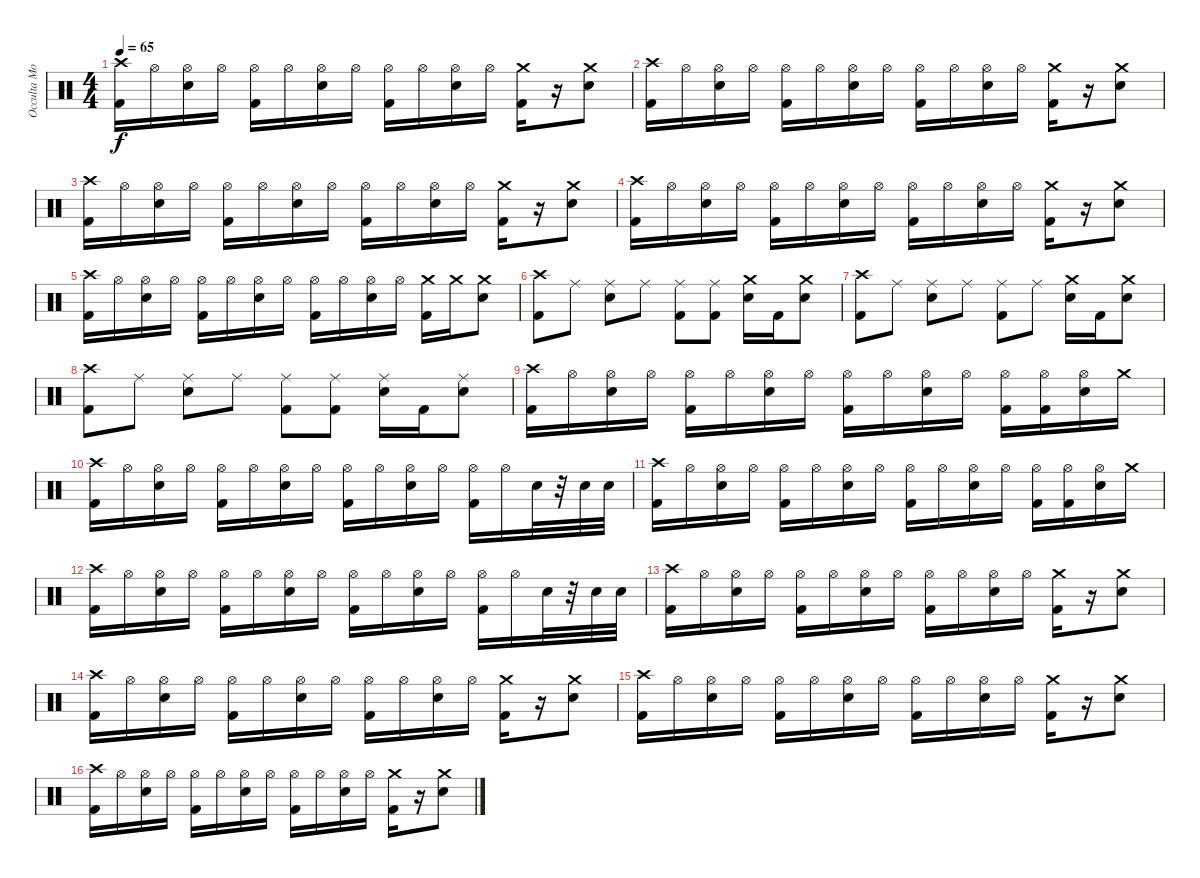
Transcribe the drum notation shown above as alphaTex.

\track ("Occulta Mors" "Occulta Mo") {instrument percussion}
\staff {score}
\articulation defaults
\ts (4 4)
\tempo 65
\clef neutral
\ks c
("Crash high (hit)" "Kick (hit) 2").16{dy f} "Hi-Hat (open)".16 ("Hi-Hat (open)" "Snare (hit) 2").16 "Hi-Hat (open)".16 ("Hi-Hat (open)" "Kick (hit) 2").16 "Hi-Hat (open)".16 ("Hi-Hat (open)" "Snare (hit) 2").16 "Hi-Hat (open)".16 ("Hi-Hat (open)" "Kick (hit) 2").16 "Hi-Hat (open)".16 ("Hi-Hat (open)" "Snare (hit) 2").16 "Hi-Hat (open)".16 ("Crash medium (hit)" "Kick (hit) 2").16 r.16 ("Crash medium (hit)" "Snare (hit) 2").8 |
("Crash high (hit)" "Kick (hit) 2").16 "Hi-Hat (open)".16 ("Hi-Hat (open)" "Snare (hit) 2").16 "Hi-Hat (open)".16 ("Hi-Hat (open)" "Kick (hit) 2").16 "Hi-Hat (open)".16 ("Hi-Hat (open)" "Snare (hit) 2").16 "Hi-Hat (open)".16 ("Hi-Hat (open)" "Kick (hit) 2").16 "Hi-Hat (open)".16 ("Hi-Hat (open)" "Snare (hit) 2").16 "Hi-Hat (open)".16 ("Crash medium (hit)" "Kick (hit) 2").16 r.16 ("Crash medium (hit)" "Snare (hit) 2").8 |
("Crash high (hit)" "Kick (hit) 2").16 "Hi-Hat (open)".16 ("Hi-Hat (open)" "Snare (hit) 2").16 "Hi-Hat (open)".16 ("Hi-Hat (open)" "Kick (hit) 2").16 "Hi-Hat (open)".16 ("Hi-Hat (open)" "Snare (hit) 2").16 "Hi-Hat (open)".16 ("Hi-Hat (open)" "Kick (hit) 2").16 "Hi-Hat (open)".16 ("Hi-Hat (open)" "Snare (hit) 2").16 "Hi-Hat (open)".16 ("Crash medium (hit)" "Kick (hit) 2").16 r.16 ("Crash medium (hit)" "Snare (hit) 2").8 |
("Crash high (hit)" "Kick (hit) 2").16 "Hi-Hat (open)".16 ("Hi-Hat (open)" "Snare (hit) 2").16 "Hi-Hat (open)".16 ("Hi-Hat (open)" "Kick (hit) 2").16 "Hi-Hat (open)".16 ("Hi-Hat (open)" "Snare (hit) 2").16 "Hi-Hat (open)".16 ("Hi-Hat (open)" "Kick (hit) 2").16 "Hi-Hat (open)".16 ("Hi-Hat (open)" "Snare (hit) 2").16 "Hi-Hat (open)".16 ("Crash medium (hit)" "Kick (hit) 2").16 r.16 ("Crash medium (hit)" "Snare (hit) 2").8 |
("Crash high (hit)" "Kick (hit) 2").16 "Hi-Hat (open)".16 ("Hi-Hat (open)" "Snare (hit) 2").16 "Hi-Hat (open)".16 ("Hi-Hat (open)" "Kick (hit) 2").16 "Hi-Hat (open)".16 ("Hi-Hat (open)" "Snare (hit) 2").16 "Hi-Hat (open)".16 ("Hi-Hat (open)" "Kick (hit) 2").16 "Hi-Hat (open)".16 ("Hi-Hat (open)" "Snare (hit) 2").16 "Hi-Hat (open)".16 ("Crash medium (hit)" "Kick (hit) 2").16 "Crash medium (hit)".16 ("Crash medium (hit)" "Snare (hit) 2").8 |
("Crash high (hit)" "Kick (hit) 2").8 "Ride (middle)".8 ("Ride (middle)" "Snare (hit) 2").8 "Ride (middle)".8 ("Ride (middle)" "Kick (hit) 2").8 ("Ride (middle)" "Kick (hit) 2").8 ("Crash medium (hit)" "Snare (hit) 2").16 "Kick (hit) 2".16 ("Crash medium (hit)" "Snare (hit) 2").8 |
("Crash high (hit)" "Kick (hit) 2").8 "Ride (middle)".8 ("Ride (middle)" "Snare (hit) 2").8 "Ride (middle)".8 ("Ride (middle)" "Kick (hit) 2").8 "Ride (middle)".8 ("Crash medium (hit)" "Snare (hit) 2").16 "Kick (hit) 2".16 ("Crash medium (hit)" "Snare (hit) 2").8 |
("Crash high (hit)" "Kick (hit) 2").8 "Ride (middle)".8 ("Ride (middle)" "Snare (hit) 2").8 "Ride (middle)".8 ("Ride (middle)" "Kick (hit) 2").8 ("Ride (middle)" "Kick (hit) 2").8 ("Ride (middle)" "Snare (hit) 2").16 "Kick (hit) 2".16 ("Ride (middle)" "Snare (hit) 2").8 |
("Crash high (hit)" "Kick (hit) 2").16 "Hi-Hat (open)".16 ("Hi-Hat (open)" "Snare (hit) 2").16 "Hi-Hat (open)".16 ("Hi-Hat (open)" "Kick (hit) 2").16 "Hi-Hat (open)".16 ("Hi-Hat (open)" "Snare (hit) 2").16 "Hi-Hat (open)".16 ("Hi-Hat (open)" "Kick (hit) 2").16 "Hi-Hat (open)".16 ("Hi-Hat (open)" "Snare (hit) 2").16 "Hi-Hat (open)".16 ("Hi-Hat (open)" "Kick (hit) 2").16 ("Hi-Hat (open)" "Kick (hit) 2").16 ("Hi-Hat (open)" "Snare (hit) 2").16 "Crash medium (hit)".16 |
("Crash high (hit)" "Kick (hit) 2").16 "Hi-Hat (open)".16 ("Hi-Hat (open)" "Snare (hit) 2").16 "Hi-Hat (open)".16 ("Hi-Hat (open)" "Kick (hit) 2").16 "Hi-Hat (open)".16 ("Hi-Hat (open)" "Snare (hit) 2").16 "Hi-Hat (open)".16 ("Hi-Hat (open)" "Kick (hit) 2").16 "Hi-Hat (open)".16 ("Hi-Hat (open)" "Snare (hit) 2").16 "Hi-Hat (open)".16 ("Hi-Hat (open)" "Kick (hit) 2").16 "Hi-Hat (open)".16 "Snare (hit) 2".32 r.32 "Snare (hit) 2".32 "Snare (hit) 2".32 |
("Crash high (hit)" "Kick (hit) 2").16 "Hi-Hat (open)".16 ("Hi-Hat (open)" "Snare (hit) 2").16 "Hi-Hat (open)".16 ("Hi-Hat (open)" "Kick (hit) 2").16 "Hi-Hat (open)".16 ("Hi-Hat (open)" "Snare (hit) 2").16 "Hi-Hat (open)".16 ("Hi-Hat (open)" "Kick (hit) 2").16 "Hi-Hat (open)".16 ("Hi-Hat (open)" "Snare (hit) 2").16 "Hi-Hat (open)".16 ("Hi-Hat (open)" "Kick (hit) 2").16 ("Hi-Hat (open)" "Kick (hit) 2").16 ("Hi-Hat (open)" "Snare (hit) 2").16 "Crash medium (hit)".16 |
("Crash high (hit)" "Kick (hit) 2").16 "Hi-Hat (open)".16 ("Hi-Hat (open)" "Snare (hit) 2").16 "Hi-Hat (open)".16 ("Hi-Hat (open)" "Kick (hit) 2").16 "Hi-Hat (open)".16 ("Hi-Hat (open)" "Snare (hit) 2").16 "Hi-Hat (open)".16 ("Hi-Hat (open)" "Kick (hit) 2").16 "Hi-Hat (open)".16 ("Hi-Hat (open)" "Snare (hit) 2").16 "Hi-Hat (open)".16 ("Hi-Hat (open)" "Kick (hit) 2").16 "Hi-Hat (open)".16 "Snare (hit) 2".32 r.32 "Snare (hit) 2".32 "Snare (hit) 2".32 |
("Crash high (hit)" "Kick (hit) 2").16 "Hi-Hat (open)".16 ("Hi-Hat (open)" "Snare (hit) 2").16 "Hi-Hat (open)".16 ("Hi-Hat (open)" "Kick (hit) 2").16 "Hi-Hat (open)".16 ("Hi-Hat (open)" "Snare (hit) 2").16 "Hi-Hat (open)".16 ("Hi-Hat (open)" "Kick (hit) 2").16 "Hi-Hat (open)".16 ("Hi-Hat (open)" "Snare (hit) 2").16 "Hi-Hat (open)".16 ("Crash medium (hit)" "Kick (hit) 2").16 r.16 ("Crash medium (hit)" "Snare (hit) 2").8 |
("Crash high (hit)" "Kick (hit) 2").16 "Hi-Hat (open)".16 ("Hi-Hat (open)" "Snare (hit) 2").16 "Hi-Hat (open)".16 ("Hi-Hat (open)" "Kick (hit) 2").16 "Hi-Hat (open)".16 ("Hi-Hat (open)" "Snare (hit) 2").16 "Hi-Hat (open)".16 ("Hi-Hat (open)" "Kick (hit) 2").16 "Hi-Hat (open)".16 ("Hi-Hat (open)" "Snare (hit) 2").16 "Hi-Hat (open)".16 ("Crash medium (hit)" "Kick (hit) 2").16 r.16 ("Crash medium (hit)" "Snare (hit) 2").8 |
("Crash high (hit)" "Kick (hit) 2").16 "Hi-Hat (open)".16 ("Hi-Hat (open)" "Snare (hit) 2").16 "Hi-Hat (open)".16 ("Hi-Hat (open)" "Kick (hit) 2").16 "Hi-Hat (open)".16 ("Hi-Hat (open)" "Snare (hit) 2").16 "Hi-Hat (open)".16 ("Hi-Hat (open)" "Kick (hit) 2").16 "Hi-Hat (open)".16 ("Hi-Hat (open)" "Snare (hit) 2").16 "Hi-Hat (open)".16 ("Crash medium (hit)" "Kick (hit) 2").16 r.16 ("Crash medium (hit)" "Snare (hit) 2").8 |
("Crash high (hit)" "Kick (hit) 2").16 "Hi-Hat (open)".16 ("Hi-Hat (open)" "Snare (hit) 2").16 "Hi-Hat (open)".16 ("Hi-Hat (open)" "Kick (hit) 2").16 "Hi-Hat (open)".16 ("Hi-Hat (open)" "Snare (hit) 2").16 "Hi-Hat (open)".16 ("Hi-Hat (open)" "Kick (hit) 2").16 "Hi-Hat (open)".16 ("Hi-Hat (open)" "Snare (hit) 2").16 "Hi-Hat (open)".16 ("Crash medium (hit)" "Kick (hit) 2").16 r.16 ("Crash medium (hit)" "Snare (hit) 2").8
